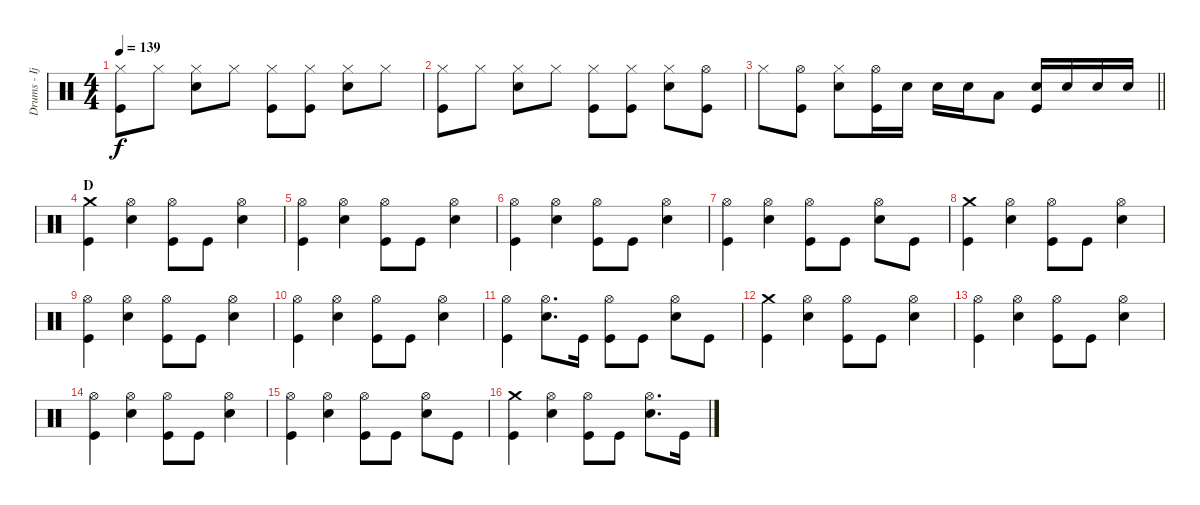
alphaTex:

\track ("Drums - Ijichi" "Drums - Ij") {instrument percussion}
\staff {score}
\articulation defaults
\ts (4 4)
\tempo 139
\clef neutral
\ks c
("Hi-Hat (closed)" "Kick (hit)").8{dy f} "Hi-Hat (closed)".8 ("Hi-Hat (closed)" "Electric Snare (hit)").8 "Hi-Hat (closed)".8 ("Hi-Hat (closed)" "Kick (hit)").8 ("Hi-Hat (closed)" "Kick (hit)").8 ("Hi-Hat (closed)" "Electric Snare (hit)").8 "Hi-Hat (closed)".8 |
("Hi-Hat (closed)" "Kick (hit)").8 "Hi-Hat (closed)".8 ("Hi-Hat (closed)" "Electric Snare (hit)").8 "Hi-Hat (closed)".8 ("Hi-Hat (closed)" "Kick (hit)").8 ("Hi-Hat (closed)" "Kick (hit)").8 ("Hi-Hat (closed)" "Electric Snare (hit)").8 ("Hi-Hat (open)" "Kick (hit)").8 |
\barLineRight lightlight "Hi-Hat (closed)".8
("Hi-Hat (open)" "Kick (hit)").8 ("Hi-Hat (closed)" "Electric Snare (hit)").8 ("Hi-Hat (open)" "Kick (hit)").16 "Electric Snare (hit)".16 "Electric Snare (hit)".16 "Electric Snare (hit)".16 "Low Tom (hit)".8 ("Electric Snare (hit)" "Kick (hit)").16 "Electric Snare (hit)".16 "Electric Snare (hit)".16 "Electric Snare (hit)".16 |
\section ("" "D")
("Crash medium (hit)" "Kick (hit)").4 ("Hi-Hat (open)" "Electric Snare (hit)").4 ("Hi-Hat (open)" "Kick (hit)").8 "Kick (hit)".8 ("Hi-Hat (open)" "Electric Snare (hit)").4 |
("Hi-Hat (open)" "Kick (hit)").4 ("Hi-Hat (open)" "Electric Snare (hit)").4 ("Hi-Hat (open)" "Kick (hit)").8 "Kick (hit)".8 ("Hi-Hat (open)" "Electric Snare (hit)").4 |
("Hi-Hat (open)" "Kick (hit)").4 ("Hi-Hat (open)" "Electric Snare (hit)").4 ("Hi-Hat (open)" "Kick (hit)").8 "Kick (hit)".8 ("Hi-Hat (open)" "Electric Snare (hit)").4 |
("Hi-Hat (open)" "Kick (hit)").4 ("Hi-Hat (open)" "Electric Snare (hit)").4 ("Hi-Hat (open)" "Kick (hit)").8 "Kick (hit)".8 ("Hi-Hat (open)" "Electric Snare (hit)").8 "Kick (hit)".8 |
("Crash medium (hit)" "Kick (hit)").4 ("Hi-Hat (open)" "Electric Snare (hit)").4 ("Hi-Hat (open)" "Kick (hit)").8 "Kick (hit)".8 ("Hi-Hat (open)" "Electric Snare (hit)").4 |
("Hi-Hat (open)" "Kick (hit)").4 ("Hi-Hat (open)" "Electric Snare (hit)").4 ("Hi-Hat (open)" "Kick (hit)").8 "Kick (hit)".8 ("Hi-Hat (open)" "Electric Snare (hit)").4 |
("Hi-Hat (open)" "Kick (hit)").4 ("Hi-Hat (open)" "Electric Snare (hit)").4 ("Hi-Hat (open)" "Kick (hit)").8 "Kick (hit)".8 ("Hi-Hat (open)" "Electric Snare (hit)").4 |
("Hi-Hat (open)" "Kick (hit)").4 ("Hi-Hat (open)" "Electric Snare (hit)").8{d} "Kick (hit)".16 ("Hi-Hat (open)" "Kick (hit)").8 "Kick (hit)".8 ("Hi-Hat (open)" "Electric Snare (hit)").8 "Kick (hit)".8 |
("Crash medium (hit)" "Kick (hit)").4 ("Hi-Hat (open)" "Electric Snare (hit)").4 ("Hi-Hat (open)" "Kick (hit)").8 "Kick (hit)".8 ("Hi-Hat (open)" "Electric Snare (hit)").4 |
("Hi-Hat (open)" "Kick (hit)").4 ("Hi-Hat (open)" "Electric Snare (hit)").4 ("Hi-Hat (open)" "Kick (hit)").8 "Kick (hit)".8 ("Hi-Hat (open)" "Electric Snare (hit)").4 |
("Hi-Hat (open)" "Kick (hit)").4 ("Hi-Hat (open)" "Electric Snare (hit)").4 ("Hi-Hat (open)" "Kick (hit)").8 "Kick (hit)".8 ("Hi-Hat (open)" "Electric Snare (hit)").4 |
("Hi-Hat (open)" "Kick (hit)").4 ("Hi-Hat (open)" "Electric Snare (hit)").4 ("Hi-Hat (open)" "Kick (hit)").8 "Kick (hit)".8 ("Hi-Hat (open)" "Electric Snare (hit)").8 "Kick (hit)".8 |
("Crash medium (hit)" "Kick (hit)").4 ("Hi-Hat (open)" "Electric Snare (hit)").4 ("Hi-Hat (open)" "Kick (hit)").8 "Kick (hit)".8 ("Hi-Hat (open)" "Electric Snare (hit)").8{d} "Kick (hit)".16
